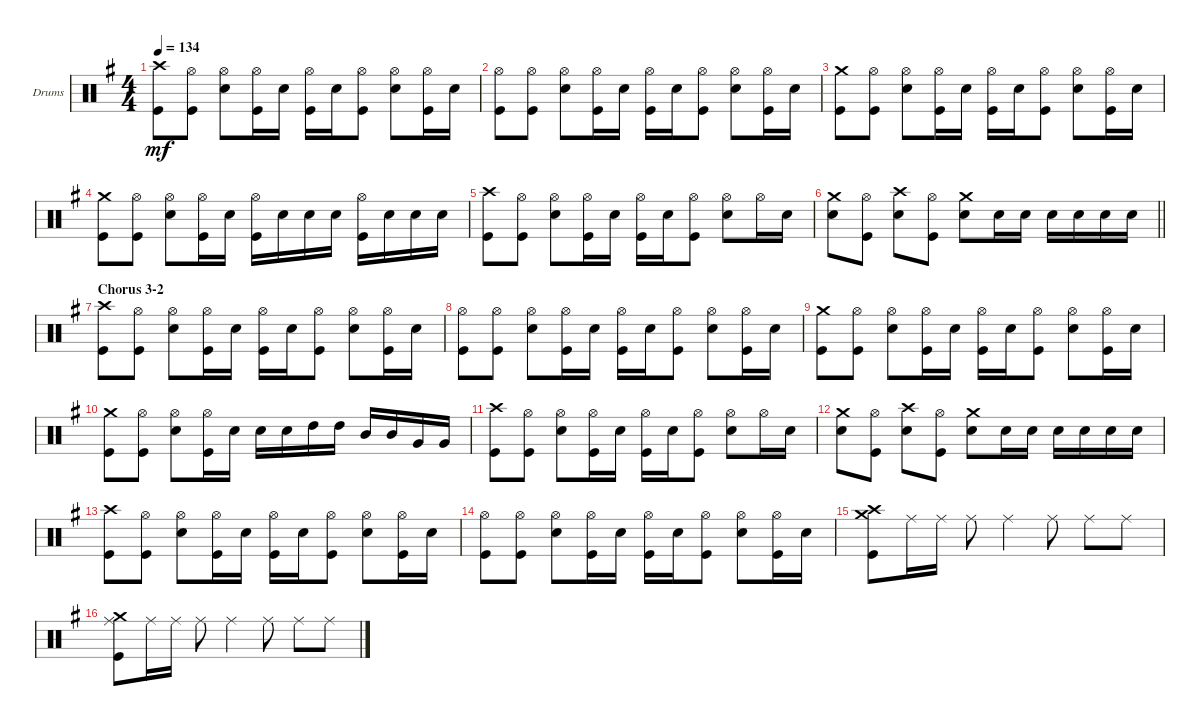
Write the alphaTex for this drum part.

\bracketExtendMode groupsimilarinstruments
\firstSystemTrackNameOrientation horizontal
\otherSystemsTrackNameOrientation horizontal
\track ("drums (Anton Zulganov)" "Drums") {instrument percussion}
\staff {score}
\articulation defaults
\ts (4 4)
\tempo 134
\clef neutral
\ks eminor
("Crash high (hit)" "Kick (hit)").8{dy mf} ("Hi-Hat (open)" "Kick (hit)").8 ("Hi-Hat (open)" "Snare (hit) 2").8 ("Hi-Hat (open)" "Kick (hit)").16 "Snare (hit) 2".16 ("Hi-Hat (open)" "Kick (hit)").16 "Snare (hit) 2".16 ("Hi-Hat (open)" "Kick (hit)").8 ("Hi-Hat (open)" "Snare (hit) 2").8 ("Hi-Hat (open)" "Kick (hit)").16 "Snare (hit) 2".16 |
("Hi-Hat (open)" "Kick (hit)").8 ("Hi-Hat (open)" "Kick (hit)").8 ("Hi-Hat (open)" "Snare (hit) 2").8 ("Hi-Hat (open)" "Kick (hit)").16 "Snare (hit) 2".16 ("Hi-Hat (open)" "Kick (hit)").16 "Snare (hit) 2".16 ("Hi-Hat (open)" "Kick (hit)").8 ("Hi-Hat (open)" "Snare (hit) 2").8 ("Hi-Hat (open)" "Kick (hit)").16 "Snare (hit) 2".16 |
("Crash medium (hit)" "Kick (hit)").8 ("Hi-Hat (open)" "Kick (hit)").8 ("Hi-Hat (open)" "Snare (hit) 2").8 ("Hi-Hat (open)" "Kick (hit)").16 "Snare (hit) 2".16 ("Hi-Hat (open)" "Kick (hit)").16 "Snare (hit) 2".16 ("Hi-Hat (open)" "Kick (hit)").8 ("Hi-Hat (open)" "Snare (hit) 2").8 ("Hi-Hat (open)" "Kick (hit)").16 "Snare (hit) 2".16 |
("Crash medium (hit)" "Kick (hit)").8 ("Hi-Hat (open)" "Kick (hit)").8 ("Hi-Hat (open)" "Snare (hit) 2").8 ("Hi-Hat (open)" "Kick (hit)").16 "Snare (hit) 2".16 ("Hi-Hat (open)" "Kick (hit)").16 "Snare (hit) 2".16 "Snare (hit) 2".16 "Snare (hit) 2".16 ("Kick (hit)" "Hi-Hat (open)").16 "Snare (hit) 2".16 "Snare (hit) 2".16 "Snare (hit) 2".16 |
("Crash high (hit)" "Kick (hit)").8 ("Hi-Hat (open)" "Kick (hit)").8 ("Hi-Hat (open)" "Snare (hit) 2").8 ("Hi-Hat (open)" "Kick (hit)").16 "Snare (hit) 2".16 ("Hi-Hat (open)" "Kick (hit)").16 "Snare (hit) 2".16 ("Hi-Hat (open)" "Kick (hit)").8 ("Hi-Hat (open)" "Snare (hit) 2").8 "Hi-Hat (open)".16 "Snare (hit) 2".16 |
\barLineRight lightlight
("Crash medium (hit)" "Snare (hit) 2").8 ("Hi-Hat (open)" "Kick (hit)").8 ("Snare (hit) 2" "Crash high (hit)").8 ("Hi-Hat (open)" "Kick (hit)").8 ("Crash medium (hit)" "Snare (hit) 2").8 "Snare (hit) 2".16 "Snare (hit) 2".16 "Snare (hit) 2".16 "Snare (hit) 2".16 "Snare (hit) 2".16 "Snare (hit) 2".16 |
\section ("" "Chorus 3-2")
("Crash high (hit)" "Kick (hit)").8 ("Hi-Hat (open)" "Kick (hit)").8 ("Hi-Hat (open)" "Snare (hit) 2").8 ("Hi-Hat (open)" "Kick (hit)").16 "Snare (hit) 2".16 ("Hi-Hat (open)" "Kick (hit)").16 "Snare (hit) 2".16 ("Hi-Hat (open)" "Kick (hit)").8 ("Hi-Hat (open)" "Snare (hit) 2").8 ("Hi-Hat (open)" "Kick (hit)").16 "Snare (hit) 2".16 |
("Hi-Hat (open)" "Kick (hit)").8 ("Hi-Hat (open)" "Kick (hit)").8 ("Hi-Hat (open)" "Snare (hit) 2").8 ("Hi-Hat (open)" "Kick (hit)").16 "Snare (hit) 2".16 ("Hi-Hat (open)" "Kick (hit)").16 "Snare (hit) 2".16 ("Hi-Hat (open)" "Kick (hit)").8 ("Hi-Hat (open)" "Snare (hit) 2").8 ("Hi-Hat (open)" "Kick (hit)").16 "Snare (hit) 2".16 |
("Crash medium (hit)" "Kick (hit)").8 ("Hi-Hat (open)" "Kick (hit)").8 ("Hi-Hat (open)" "Snare (hit) 2").8 ("Hi-Hat (open)" "Kick (hit)").16 "Snare (hit) 2".16 ("Hi-Hat (open)" "Kick (hit)").16 "Snare (hit) 2".16 ("Hi-Hat (open)" "Kick (hit)").8 ("Hi-Hat (open)" "Snare (hit) 2").8 ("Hi-Hat (open)" "Kick (hit)").16 "Snare (hit) 2".16 |
("Crash medium (hit)" "Kick (hit)").8 ("Hi-Hat (open)" "Kick (hit)").8 ("Hi-Hat (open)" "Snare (hit) 2").8 ("Hi-Hat (open)" "Kick (hit)").16 "Snare (hit) 2".16 "Snare (hit) 2".16 "Snare (hit) 2".16 "High Tom (hit)".16 "High Tom (hit)".16 "Mid Tom (hit)".16 "Mid Tom (hit)".16 "Very Low Tom (hit)".16 "Very Low Tom (hit)".16 |
("Crash high (hit)" "Kick (hit)").8 ("Hi-Hat (open)" "Kick (hit)").8 ("Hi-Hat (open)" "Snare (hit) 2").8 ("Hi-Hat (open)" "Kick (hit)").16 "Snare (hit) 2".16 ("Hi-Hat (open)" "Kick (hit)").16 "Snare (hit) 2".16 ("Hi-Hat (open)" "Kick (hit)").8 ("Hi-Hat (open)" "Snare (hit) 2").8 "Hi-Hat (open)".16 "Snare (hit) 2".16 |
("Crash medium (hit)" "Snare (hit) 2").8 ("Hi-Hat (open)" "Kick (hit)").8 ("Snare (hit) 2" "Crash high (hit)").8 ("Hi-Hat (open)" "Kick (hit)").8 ("Snare (hit) 2" "Crash medium (hit)").8 "Snare (hit) 2".16 "Snare (hit) 2".16 "Snare (hit) 2".16 "Snare (hit) 2".16 "Snare (hit) 2".16 "Snare (hit) 2".16 |
("Crash high (hit)" "Kick (hit)").8 ("Hi-Hat (open)" "Kick (hit)").8 ("Hi-Hat (open)" "Snare (hit) 2").8 ("Hi-Hat (open)" "Kick (hit)").16 "Snare (hit) 2".16 ("Hi-Hat (open)" "Kick (hit)").16 "Snare (hit) 2".16 ("Hi-Hat (open)" "Kick (hit)").8 ("Hi-Hat (open)" "Snare (hit) 2").8 ("Hi-Hat (open)" "Kick (hit)").16 "Snare (hit) 2".16 |
("Hi-Hat (open)" "Kick (hit)").8 ("Hi-Hat (open)" "Kick (hit)").8 ("Hi-Hat (open)" "Snare (hit) 2").8 ("Hi-Hat (open)" "Kick (hit)").16 "Snare (hit) 2".16 ("Hi-Hat (open)" "Kick (hit)").16 "Snare (hit) 2".16 ("Hi-Hat (open)" "Kick (hit)").8 ("Hi-Hat (open)" "Snare (hit) 2").8 ("Hi-Hat (open)" "Kick (hit)").16 "Snare (hit) 2".16 |
("Crash medium (hit)" "Crash high (hit)" "Kick (hit)").8 "Ride (middle)".16 "Ride (middle)".16 "Ride (middle)".8 "Ride (middle)".4 "Ride (middle)".8 "Ride (middle)".8 "Ride (middle)".8 |
("Ride (middle)" "Kick (hit)" "Crash medium (hit)").8 "Ride (middle)".16 "Ride (middle)".16 "Ride (middle)".8 "Ride (middle)".4 "Ride (middle)".8 "Ride (middle)".8 "Ride (middle)".8
